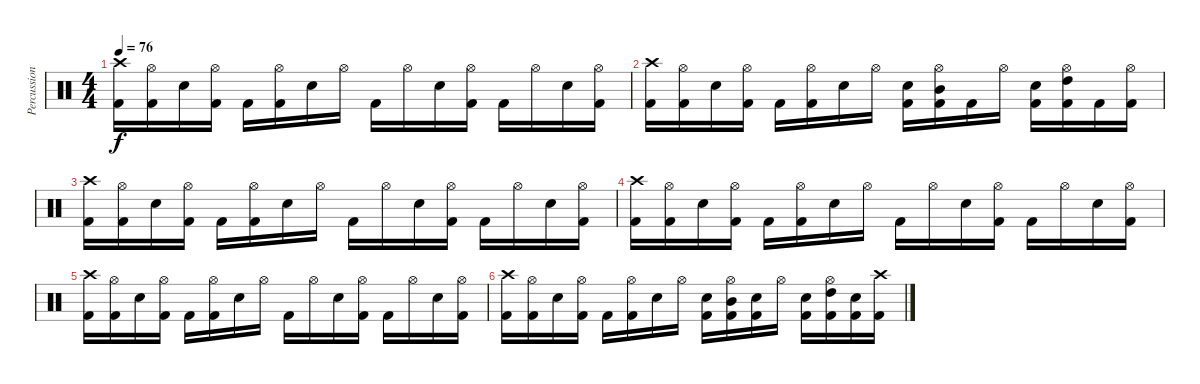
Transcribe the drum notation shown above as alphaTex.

\track ("Percussion" "Percussion") {instrument percussion}
\staff {score}
\articulation defaults
\ts (4 4)
\tempo 76
\clef neutral
\ks c
("Crash high (hit)" "Kick (hit) 2").16{dy f} ("Hi-Hat (open)" "Kick (hit) 2").16 "Electric Snare (hit)".16 ("Hi-Hat (open)" "Kick (hit) 2").16 "Kick (hit) 2".16 ("Hi-Hat (open)" "Kick (hit) 2").16 "Electric Snare (hit)".16 "Hi-Hat (open)".16 "Kick (hit) 2".16 "Hi-Hat (open)".16 "Electric Snare (hit)".16 ("Hi-Hat (open)" "Kick (hit) 2").16 "Kick (hit) 2".16 "Hi-Hat (open)".16 "Electric Snare (hit)".16 ("Hi-Hat (open)" "Kick (hit) 2").16 |
("Crash high (hit)" "Kick (hit) 2").16 ("Hi-Hat (open)" "Kick (hit) 2").16 "Electric Snare (hit)".16 ("Hi-Hat (open)" "Kick (hit) 2").16 "Kick (hit) 2".16 ("Hi-Hat (open)" "Kick (hit) 2").16 "Electric Snare (hit)".16 "Hi-Hat (open)".16 ("Electric Snare (hit)" "Kick (hit) 2").16 ("Hi-Hat (open)" "Mid Tom (hit)" "Kick (hit) 2").16 "Kick (hit) 2".16 "Hi-Hat (open)".16 ("Electric Snare (hit)" "Kick (hit) 2").16 ("Hi-Hat (open)" "High Tom (hit)" "Kick (hit) 2").16 "Kick (hit) 2".16 ("Hi-Hat (open)" "Kick (hit) 2").16 |
("Crash high (hit)" "Kick (hit) 2").16 ("Hi-Hat (open)" "Kick (hit) 2").16 "Electric Snare (hit)".16 ("Hi-Hat (open)" "Kick (hit) 2").16 "Kick (hit) 2".16 ("Hi-Hat (open)" "Kick (hit) 2").16 "Electric Snare (hit)".16 "Hi-Hat (open)".16 "Kick (hit) 2".16 "Hi-Hat (open)".16 "Electric Snare (hit)".16 ("Hi-Hat (open)" "Kick (hit) 2").16 "Kick (hit) 2".16 "Hi-Hat (open)".16 "Electric Snare (hit)".16 ("Hi-Hat (open)" "Kick (hit) 2").16 |
("Crash high (hit)" "Kick (hit) 2").16 ("Hi-Hat (open)" "Kick (hit) 2").16 "Electric Snare (hit)".16 ("Hi-Hat (open)" "Kick (hit) 2").16 "Kick (hit) 2".16 ("Hi-Hat (open)" "Kick (hit) 2").16 "Electric Snare (hit)".16 "Hi-Hat (open)".16 "Kick (hit) 2".16 "Hi-Hat (open)".16 "Electric Snare (hit)".16 ("Hi-Hat (open)" "Kick (hit) 2").16 "Kick (hit) 2".16 "Hi-Hat (open)".16 "Electric Snare (hit)".16 ("Hi-Hat (open)" "Kick (hit) 2").16 |
("Crash high (hit)" "Kick (hit) 2").16 ("Hi-Hat (open)" "Kick (hit) 2").16 "Electric Snare (hit)".16 ("Hi-Hat (open)" "Kick (hit) 2").16 "Kick (hit) 2".16 ("Hi-Hat (open)" "Kick (hit) 2").16 "Electric Snare (hit)".16 "Hi-Hat (open)".16 "Kick (hit) 2".16 "Hi-Hat (open)".16 "Electric Snare (hit)".16 ("Hi-Hat (open)" "Kick (hit) 2").16 "Kick (hit) 2".16 "Hi-Hat (open)".16 "Electric Snare (hit)".16 ("Hi-Hat (open)" "Kick (hit) 2").16 |
("Crash high (hit)" "Kick (hit) 2").16 ("Hi-Hat (open)" "Kick (hit) 2").16 "Electric Snare (hit)".16 ("Hi-Hat (open)" "Kick (hit) 2").16 "Kick (hit) 2".16 ("Hi-Hat (open)" "Kick (hit) 2").16 "Electric Snare (hit)".16 "Hi-Hat (open)".16 ("Electric Snare (hit)" "Kick (hit) 2").16 ("Hi-Hat (open)" "Mid Tom (hit)" "Kick (hit) 2").16 ("Electric Snare (hit)" "Kick (hit) 2").16 "Hi-Hat (open)".16 ("Electric Snare (hit)" "Kick (hit) 2").16 ("Hi-Hat (open)" "High Tom (hit)" "Kick (hit) 2").16 ("Electric Snare (hit)" "Kick (hit) 2").16 ("Crash high (hit)" "Kick (hit) 2").16
